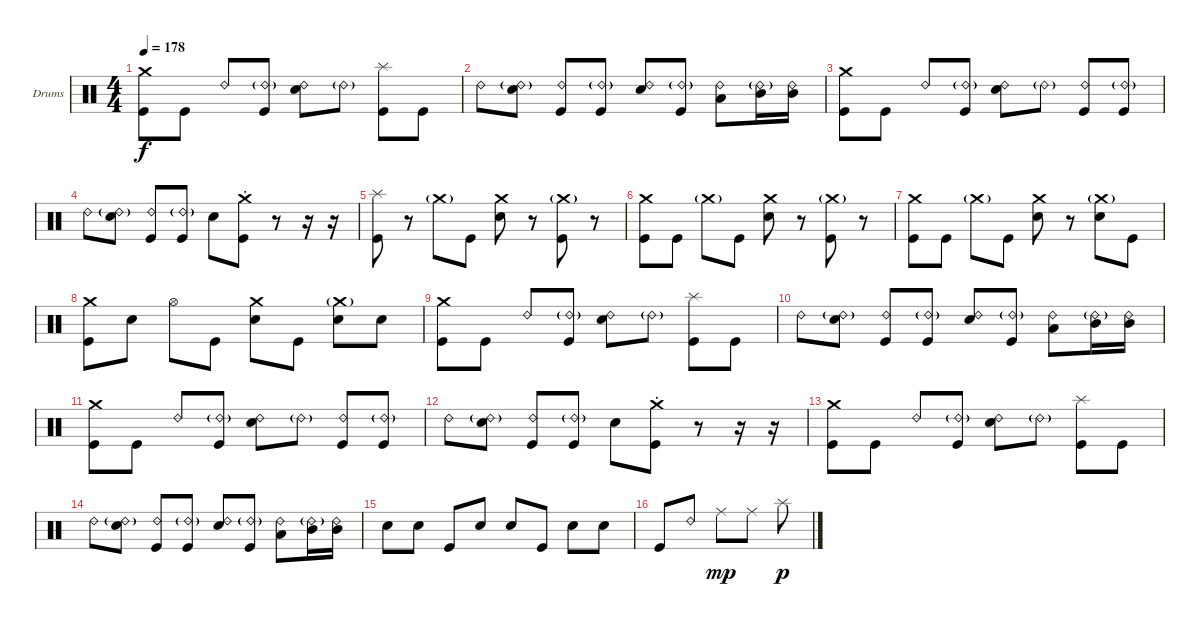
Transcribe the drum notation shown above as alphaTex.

\bracketExtendMode groupsimilarinstruments
\firstSystemTrackNameOrientation horizontal
\otherSystemsTrackNameOrientation horizontal
\track ("Drums" "Drums") {instrument percussion}
\staff {score}
\articulation defaults
\ts (4 4)
\tempo 178
\clef neutral
\ks c
("Kick (hit)" "Crash medium (hit)").8{dy f} "Kick (hit)".8 "Ride (bell) 2".8 ("Kick (hit)" "Ride (bell) 2"{g}).8 ("Snare (hit) 2" "Ride (bell) 2").8 "Ride (bell) 2"{g}.8 ("Kick (hit)" "Splash (hit)").8 "Kick (hit)".8 |
"Ride (bell) 2".8 ("Snare (hit) 2" "Ride (bell) 2"{g}).8 ("Kick (hit)" "Ride (bell) 2").8 ("Kick (hit)" "Ride (bell) 2"{g}).8 ("Snare (hit) 2" "Ride (bell) 2").8 ("Kick (hit)" "Ride (bell) 2"{g}).8 ("Low Tom (hit)" "Ride (bell) 2").8 ("Mid Tom (hit)" "Ride (bell) 2"{g}).16 ("Mid Tom (hit)" "Ride (bell) 2").16 |
("Kick (hit)" "Crash medium (hit)").8 "Kick (hit)".8 "Ride (bell) 2".8 ("Kick (hit)" "Ride (bell) 2"{g}).8 ("Snare (hit) 2" "Ride (bell) 2").8 "Ride (bell) 2"{g}.8 ("Kick (hit)" "Ride (bell) 2").8 ("Kick (hit)" "Ride (bell) 2"{g}).8 |
"Ride (bell) 2".8 ("Snare (hit) 2" "Ride (bell) 2"{g}).8 ("Kick (hit)" "Ride (bell) 2").8 ("Kick (hit)" "Ride (bell) 2"{g}).8 "Snare (hit) 2".8 ("Crash medium (hit)"{st} "Kick (hit)").8 r.8 r.16 r.16 |
("Splash (hit)" "Kick (hit)").8 r.8 "Crash medium (hit)"{g}.8 "Kick (hit)".8 ("Snare (hit) 2" "Crash medium (hit)").8 r.8 ("Kick (hit)" "Crash medium (hit)"{g}).8 r.8 |
("Kick (hit)" "Crash medium (hit)").8 "Kick (hit)".8 "Crash medium (hit)"{g}.8 "Kick (hit)".8 ("Snare (hit) 2" "Crash medium (hit)").8 r.8 ("Kick (hit)" "Crash medium (hit)"{g}).8 r.8 |
("Kick (hit)" "Crash medium (hit)").8 "Kick (hit)".8 "Crash medium (hit)"{g}.8 "Kick (hit)".8 ("Snare (hit) 2" "Crash medium (hit)").8 r.8 ("Snare (hit) 2" "Crash medium (hit)"{g}).8 "Kick (hit)".8 |
("Kick (hit)" "Crash medium (hit)").8 "Snare (hit) 2".8 "Hi-Hat (open)".8 "Kick (hit)".8 ("Snare (hit) 2" "Crash medium (hit)").8 "Kick (hit)".8 ("Snare (hit) 2" "Crash medium (hit)"{g}).8 "Snare (hit) 2".8 |
("Kick (hit)" "Crash medium (hit)").8 "Kick (hit)".8 "Ride (bell) 2".8 ("Kick (hit)" "Ride (bell) 2"{g}).8 ("Snare (hit) 2" "Ride (bell) 2").8 "Ride (bell) 2"{g}.8 ("Kick (hit)" "Splash (hit)").8 "Kick (hit)".8 |
"Ride (bell) 2".8 ("Snare (hit) 2" "Ride (bell) 2"{g}).8 ("Kick (hit)" "Ride (bell) 2").8 ("Kick (hit)" "Ride (bell) 2"{g}).8 ("Snare (hit) 2" "Ride (bell) 2").8 ("Kick (hit)" "Ride (bell) 2"{g}).8 ("Low Tom (hit)" "Ride (bell) 2").8 ("Mid Tom (hit)" "Ride (bell) 2"{g}).16 ("Mid Tom (hit)" "Ride (bell) 2").16 |
("Kick (hit)" "Crash medium (hit)").8 "Kick (hit)".8 "Ride (bell) 2".8 ("Kick (hit)" "Ride (bell) 2"{g}).8 ("Snare (hit) 2" "Ride (bell) 2").8 "Ride (bell) 2"{g}.8 ("Kick (hit)" "Ride (bell) 2").8 ("Kick (hit)" "Ride (bell) 2"{g}).8 |
"Ride (bell) 2".8 ("Snare (hit) 2" "Ride (bell) 2"{g}).8 ("Kick (hit)" "Ride (bell) 2").8 ("Kick (hit)" "Ride (bell) 2"{g}).8 "Snare (hit) 2".8 ("Crash medium (hit)"{st} "Kick (hit)").8 r.8 r.16 r.16 |
("Kick (hit)" "Crash medium (hit)").8 "Kick (hit)".8 "Ride (bell) 2".8 ("Kick (hit)" "Ride (bell) 2"{g}).8 ("Snare (hit) 2" "Ride (bell) 2").8 "Ride (bell) 2"{g}.8 ("Kick (hit)" "Splash (hit)").8 "Kick (hit)".8 |
"Ride (bell) 2".8 ("Snare (hit) 2" "Ride (bell) 2"{g}).8 ("Kick (hit)" "Ride (bell) 2").8 ("Kick (hit)" "Ride (bell) 2"{g}).8 ("Snare (hit) 2" "Ride (bell) 2").8 ("Kick (hit)" "Ride (bell) 2"{g}).8 ("Low Tom (hit)" "Ride (bell) 2").8 ("Mid Tom (hit)" "Ride (bell) 2"{g}).16 ("Mid Tom (hit)" "Ride (bell) 2").16 |
"Snare (hit) 2".8 "Snare (hit) 2".8 "Kick (hit)".8 "Snare (hit) 2".8 "Snare (hit) 2".8 "Kick (hit)".8 "Snare (hit) 2".8 "Snare (hit) 2".8 |
"Kick (hit)".8 "Ride (bell) 2".8 "Ride (middle)".8{dy mp} "Ride (middle)".8 "Splash (hit)".8{dy p}
